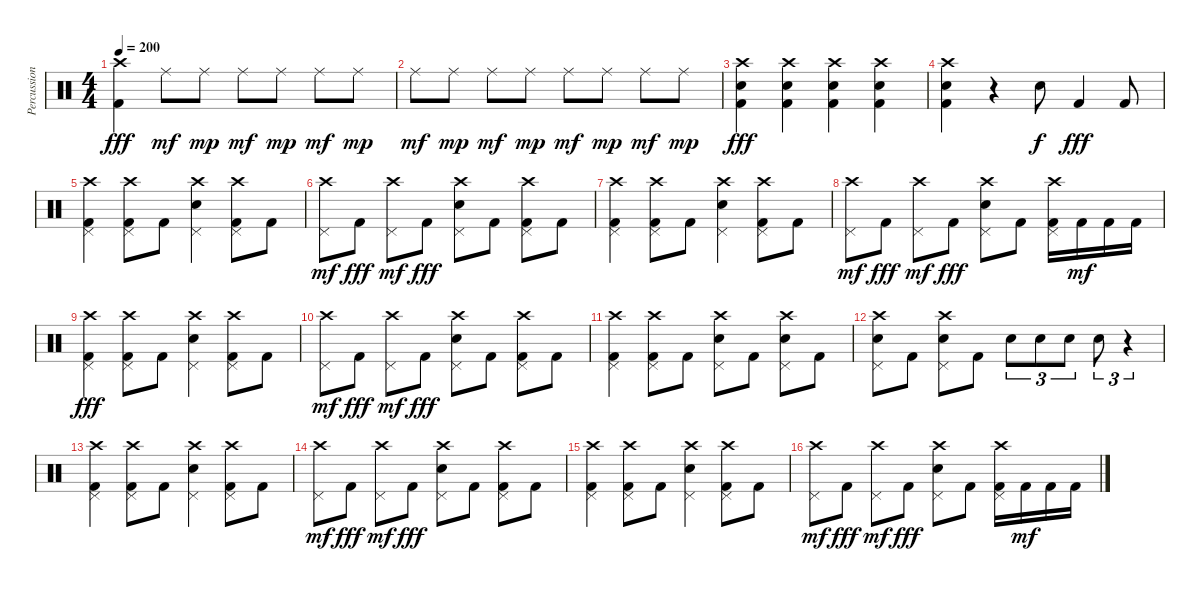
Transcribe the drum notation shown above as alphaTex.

\track ("Percussion" "Percussion") {instrument percussion}
\staff {score}
\articulation defaults
\ts (4 4)
\tempo 200
\clef neutral
\ks c
("Crash high (hit)" "Kick (hit) 2").4{dy fff} "Ride (middle)".8{dy mf} "Ride (middle)".8{dy mp} "Ride (middle)".8{dy mf} "Ride (middle)".8{dy mp} "Ride (middle)".8{dy mf} "Ride (middle)".8{dy mp} |
"Ride (middle)".8{dy mf} "Ride (middle)".8{dy mp} "Ride (middle)".8{dy mf} "Ride (middle)".8{dy mp} "Ride (middle)".8{dy mf} "Ride (middle)".8{dy mp} "Ride (middle)".8{dy mf} "Ride (middle)".8{dy mp} |
("Crash high (hit)" "Electric Snare (hit)" "Kick (hit) 2").4{dy fff} ("Crash high (hit)" "Electric Snare (hit)" "Kick (hit) 2").4 ("Crash high (hit)" "Electric Snare (hit)" "Kick (hit) 2").4 ("Crash high (hit)" "Electric Snare (hit)" "Kick (hit) 2").4 |
("Crash high (hit)" "Electric Snare (hit)" "Kick (hit) 2").4 r.4 "Electric Snare (hit)".8{dy f} "Kick (hit) 2".4{dy fff} "Kick (hit) 2".8 |
("Crash high (hit)" "Pedal Hi-Hat (hit)" "Kick (hit) 2").4 ("Crash high (hit)" "Pedal Hi-Hat (hit)" "Kick (hit) 2").8 "Kick (hit) 2".8 ("Crash high (hit)" "Pedal Hi-Hat (hit)" "Electric Snare (hit)").4 ("Crash high (hit)" "Pedal Hi-Hat (hit)" "Kick (hit) 2").8 "Kick (hit) 2".8 |
("Crash high (hit)" "Pedal Hi-Hat (hit)").8{dy mf} "Kick (hit) 2".8{dy fff} ("Crash high (hit)" "Pedal Hi-Hat (hit)").8{dy mf} "Kick (hit) 2".8{dy fff} ("Crash high (hit)" "Pedal Hi-Hat (hit)" "Electric Snare (hit)").8 "Kick (hit) 2".8 ("Crash high (hit)" "Pedal Hi-Hat (hit)" "Kick (hit) 2").8 "Kick (hit) 2".8 |
("Crash high (hit)" "Pedal Hi-Hat (hit)" "Kick (hit) 2").4 ("Crash high (hit)" "Pedal Hi-Hat (hit)" "Kick (hit) 2").8 "Kick (hit) 2".8 ("Crash high (hit)" "Pedal Hi-Hat (hit)" "Electric Snare (hit)").4 ("Crash high (hit)" "Pedal Hi-Hat (hit)" "Kick (hit) 2").8 "Kick (hit) 2".8 |
("Crash high (hit)" "Pedal Hi-Hat (hit)").8{dy mf} "Kick (hit) 2".8{dy fff} ("Crash high (hit)" "Pedal Hi-Hat (hit)").8{dy mf} "Kick (hit) 2".8{dy fff} ("Crash high (hit)" "Pedal Hi-Hat (hit)" "Electric Snare (hit)").8 "Kick (hit) 2".8 ("Crash high (hit)" "Pedal Hi-Hat (hit)" "Kick (hit) 2").16 "Kick (hit) 2".16{dy mf} "Kick (hit) 2".16 "Kick (hit) 2".16 |
("Crash high (hit)" "Pedal Hi-Hat (hit)" "Kick (hit) 2").4{dy fff} ("Crash high (hit)" "Pedal Hi-Hat (hit)" "Kick (hit) 2").8 "Kick (hit) 2".8 ("Crash high (hit)" "Pedal Hi-Hat (hit)" "Electric Snare (hit)").4 ("Crash high (hit)" "Pedal Hi-Hat (hit)" "Kick (hit) 2").8 "Kick (hit) 2".8 |
("Crash high (hit)" "Pedal Hi-Hat (hit)").8{dy mf} "Kick (hit) 2".8{dy fff} ("Crash high (hit)" "Pedal Hi-Hat (hit)").8{dy mf} "Kick (hit) 2".8{dy fff} ("Crash high (hit)" "Pedal Hi-Hat (hit)" "Electric Snare (hit)").8 "Kick (hit) 2".8 ("Crash high (hit)" "Pedal Hi-Hat (hit)" "Kick (hit) 2").8 "Kick (hit) 2".8 |
("Crash high (hit)" "Pedal Hi-Hat (hit)" "Kick (hit) 2").4 ("Crash high (hit)" "Pedal Hi-Hat (hit)" "Kick (hit) 2").8 "Kick (hit) 2".8 ("Crash high (hit)" "Pedal Hi-Hat (hit)" "Electric Snare (hit)").8 "Kick (hit) 2".8 ("Crash high (hit)" "Pedal Hi-Hat (hit)" "Electric Snare (hit)").8 "Kick (hit) 2".8 |
("Crash high (hit)" "Pedal Hi-Hat (hit)" "Electric Snare (hit)").8 "Kick (hit) 2".8 ("Crash high (hit)" "Pedal Hi-Hat (hit)" "Electric Snare (hit)").8 "Kick (hit) 2".8 "Electric Snare (hit)".8{tu (3 2)} "Electric Snare (hit)".8{tu (3 2)} "Electric Snare (hit)".8{tu (3 2)} "Electric Snare (hit)".8{tu (3 2)} r.4{tu (3 2)} |
("Crash high (hit)" "Pedal Hi-Hat (hit)" "Kick (hit) 2").4 ("Crash high (hit)" "Pedal Hi-Hat (hit)" "Kick (hit) 2").8 "Kick (hit) 2".8 ("Crash high (hit)" "Pedal Hi-Hat (hit)" "Electric Snare (hit)").4 ("Crash high (hit)" "Pedal Hi-Hat (hit)" "Kick (hit) 2").8 "Kick (hit) 2".8 |
("Crash high (hit)" "Pedal Hi-Hat (hit)").8{dy mf} "Kick (hit) 2".8{dy fff} ("Crash high (hit)" "Pedal Hi-Hat (hit)").8{dy mf} "Kick (hit) 2".8{dy fff} ("Crash high (hit)" "Pedal Hi-Hat (hit)" "Electric Snare (hit)").8 "Kick (hit) 2".8 ("Crash high (hit)" "Pedal Hi-Hat (hit)" "Kick (hit) 2").8 "Kick (hit) 2".8 |
("Crash high (hit)" "Pedal Hi-Hat (hit)" "Kick (hit) 2").4 ("Crash high (hit)" "Pedal Hi-Hat (hit)" "Kick (hit) 2").8 "Kick (hit) 2".8 ("Crash high (hit)" "Pedal Hi-Hat (hit)" "Electric Snare (hit)").4 ("Crash high (hit)" "Pedal Hi-Hat (hit)" "Kick (hit) 2").8 "Kick (hit) 2".8 |
("Crash high (hit)" "Pedal Hi-Hat (hit)").8{dy mf} "Kick (hit) 2".8{dy fff} ("Crash high (hit)" "Pedal Hi-Hat (hit)").8{dy mf} "Kick (hit) 2".8{dy fff} ("Crash high (hit)" "Pedal Hi-Hat (hit)" "Electric Snare (hit)").8 "Kick (hit) 2".8 ("Crash high (hit)" "Pedal Hi-Hat (hit)" "Kick (hit) 2").16 "Kick (hit) 2".16{dy mf} "Kick (hit) 2".16 "Kick (hit) 2".16
